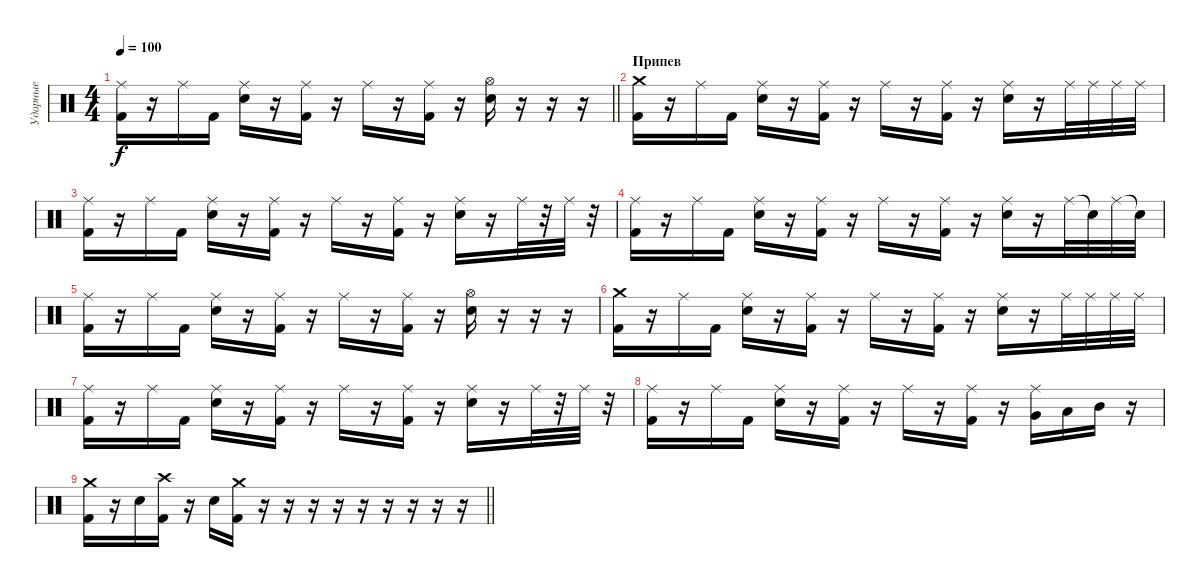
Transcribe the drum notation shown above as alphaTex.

\track ("Ударные" "Ударные") {instrument percussion}
\staff {score}
\articulation defaults
\ts (4 4)
\tempo 100
\clef neutral
\barLineRight lightlight
\ks c
("Ride (middle)" "Kick (hit) 2").16{dy f} r.16 "Ride (middle)".16 "Kick (hit) 2".16 ("Ride (middle)" "Snare (hit) 2").16 r.16 ("Ride (middle)" "Kick (hit) 2").16 r.16 "Ride (middle)".16 r.16 ("Ride (middle)" "Kick (hit) 2").16 r.16 ("Hi-Hat (open)" "Snare (hit) 2").16 r.16 r.16 r.16 |
\section ("" "Припев")
("Crash medium (hit)" "Kick (hit) 2").16 r.16 "Ride (middle)".16 "Kick (hit) 2".16 ("Ride (middle)" "Snare (hit) 2").16 r.16 ("Ride (middle)" "Kick (hit) 2").16 r.16 "Ride (middle)".16 r.16 ("Ride (middle)" "Kick (hit) 2").16 r.16 ("Ride (middle)" "Snare (hit) 2").16 r.16 "Ride (middle)".32 "Ride (middle)".32 "Ride (middle)".32 "Ride (middle)".32 |
("Ride (middle)" "Kick (hit) 2").16 r.16 "Ride (middle)".16 "Kick (hit) 2".16 ("Ride (middle)" "Snare (hit) 2").16 r.16 ("Ride (middle)" "Kick (hit) 2").16 r.16 "Ride (middle)".16 r.16 ("Ride (middle)" "Kick (hit) 2").16 r.16 ("Ride (middle)" "Snare (hit) 2").16 r.16 "Ride (middle)".32 r.32 "Ride (middle)".32 r.32 |
("Ride (middle)" "Kick (hit) 2").16 r.16 "Ride (middle)".16 "Kick (hit) 2".16 ("Ride (middle)" "Snare (hit) 2").16 r.16 ("Ride (middle)" "Kick (hit) 2").16 r.16 "Ride (middle)".16 r.16 ("Ride (middle)" "Kick (hit) 2").16 r.16 ("Ride (middle)" "Snare (hit) 2").16 r.16 "Ride (middle)".32 "Snare (hit)"{t}.32 "Ride (middle)".32 "Snare (hit)"{t}.32 |
("Ride (middle)" "Kick (hit) 2").16 r.16 "Ride (middle)".16 "Kick (hit) 2".16 ("Ride (middle)" "Snare (hit) 2").16 r.16 ("Ride (middle)" "Kick (hit) 2").16 r.16 "Ride (middle)".16 r.16 ("Ride (middle)" "Kick (hit) 2").16 r.16 ("Hi-Hat (open)" "Snare (hit) 2").16 r.16 r.16 r.16 |
("Crash medium (hit)" "Kick (hit) 2").16 r.16 "Ride (middle)".16 "Kick (hit) 2".16 ("Ride (middle)" "Snare (hit) 2").16 r.16 ("Ride (middle)" "Kick (hit) 2").16 r.16 "Ride (middle)".16 r.16 ("Ride (middle)" "Kick (hit) 2").16 r.16 ("Ride (middle)" "Snare (hit) 2").16 r.16 "Ride (middle)".32 "Ride (middle)".32 "Ride (middle)".32 "Ride (middle)".32 |
("Ride (middle)" "Kick (hit) 2").16 r.16 "Ride (middle)".16 "Kick (hit) 2".16 ("Ride (middle)" "Snare (hit) 2").16 r.16 ("Ride (middle)" "Kick (hit) 2").16 r.16 "Ride (middle)".16 r.16 ("Ride (middle)" "Kick (hit) 2").16 r.16 ("Ride (middle)" "Snare (hit) 2").16 r.16 "Ride (middle)".32 r.32 "Ride (middle)".32 r.32 |
("Ride (middle)" "Kick (hit) 2").16 r.16 "Ride (middle)".16 "Kick (hit) 2".16 ("Ride (middle)" "Snare (hit) 2").16 r.16 ("Ride (middle)" "Kick (hit) 2").16 r.16 "Ride (middle)".16 r.16 ("Ride (middle)" "Kick (hit) 2").16 r.16 ("Ride (middle)" "Very Low Tom (hit)").16 "Low Tom (hit)".16 "Mid Tom (hit)".16 r.16 |
\barLineRight lightlight
("Crash medium (hit)" "Kick (hit) 2").16 r.16 "Snare (hit) 2".16 ("Crash high (hit)" "Kick (hit) 2").16 r.16 "Snare (hit) 2".16 ("Crash medium (hit)" "Kick (hit) 2").16 r.16 r.16 r.16 r.16 r.16 r.16 r.16 r.16 r.16
